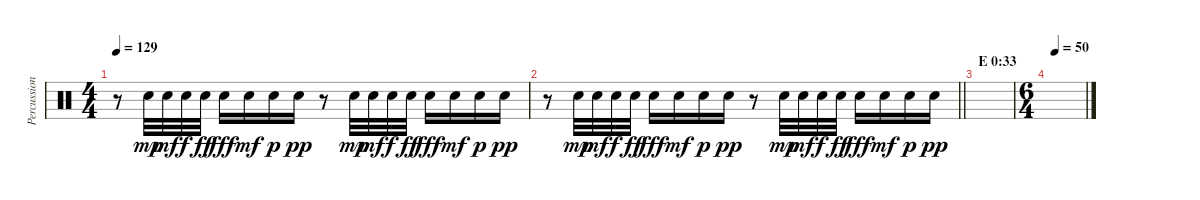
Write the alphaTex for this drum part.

\track ("Percussion" "Percussion") {instrument percussion}
\staff {score}
\articulation defaults
\ts (4 4)
\tempo 129
\clef neutral
\ks c
r.8{dy pp} "Electric Snare (hit)".32{dy mp} "Electric Snare (hit)".32{dy mf} "Electric Snare (hit)".32{dy f} "Electric Snare (hit)".32{dy ff} "Electric Snare (hit)".16{dy fff} "Electric Snare (hit)".16{dy mf} "Electric Snare (hit)".16{dy p} "Electric Snare (hit)".16{dy pp} r.8 "Electric Snare (hit)".32{dy mp} "Electric Snare (hit)".32{dy mf} "Electric Snare (hit)".32{dy f} "Electric Snare (hit)".32{dy ff} "Electric Snare (hit)".16{dy fff} "Electric Snare (hit)".16{dy mf} "Electric Snare (hit)".16{dy p} "Electric Snare (hit)".16{dy pp} |
\barLineRight lightlight
r.8 "Electric Snare (hit)".32{dy mp} "Electric Snare (hit)".32{dy mf} "Electric Snare (hit)".32{dy f} "Electric Snare (hit)".32{dy ff} "Electric Snare (hit)".16{dy fff} "Electric Snare (hit)".16{dy mf} "Electric Snare (hit)".16{dy p} "Electric Snare (hit)".16{dy pp} r.8 "Electric Snare (hit)".32{dy mp} "Electric Snare (hit)".32{dy mf} "Electric Snare (hit)".32{dy f} "Electric Snare (hit)".32{dy ff} "Electric Snare (hit)".16{dy fff} "Electric Snare (hit)".16{dy mf} "Electric Snare (hit)".16{dy p} "Electric Snare (hit)".16{dy pp} |
\section ("" "E 0:33")
|
\ts (6 4)
\tempo (50 0.16666666666666666)
